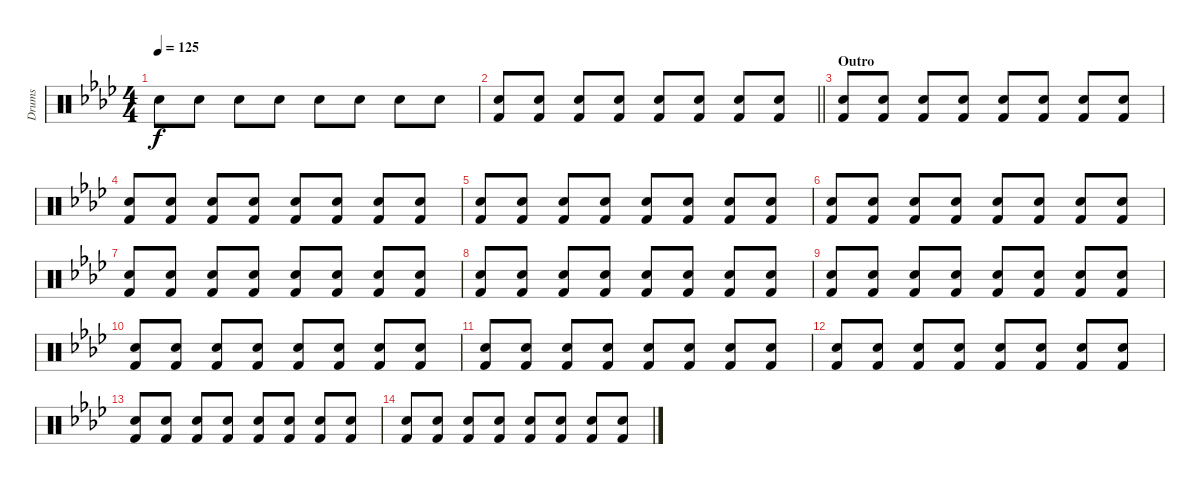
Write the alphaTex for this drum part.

\track ("Drums" "Drums") {instrument percussion}
\staff {score}
\articulation defaults
\ts (4 4)
\tempo 125
\clef neutral
\ks ab "Electric Snare (hit)".8{dy f} "Electric Snare (hit)".8 "Electric Snare (hit)".8 "Electric Snare (hit)".8 "Electric Snare (hit)".8 "Electric Snare (hit)".8 "Electric Snare (hit)".8 "Electric Snare (hit)".8
|
\barLineRight lightlight
("Electric Snare (hit)" "Kick (hit) 2").8 ("Electric Snare (hit)" "Kick (hit) 2").8 ("Electric Snare (hit)" "Kick (hit) 2").8 ("Electric Snare (hit)" "Kick (hit) 2").8 ("Electric Snare (hit)" "Kick (hit) 2").8 ("Electric Snare (hit)" "Kick (hit) 2").8 ("Electric Snare (hit)" "Kick (hit) 2").8 ("Electric Snare (hit)" "Kick (hit) 2").8 |
\section ("" "Outro")
("Electric Snare (hit)" "Kick (hit) 2").8{volume 8} ("Electric Snare (hit)" "Kick (hit) 2").8 ("Electric Snare (hit)" "Kick (hit) 2").8 ("Electric Snare (hit)" "Kick (hit) 2").8 ("Electric Snare (hit)" "Kick (hit) 2").8 ("Electric Snare (hit)" "Kick (hit) 2").8 ("Electric Snare (hit)" "Kick (hit) 2").8 ("Electric Snare (hit)" "Kick (hit) 2").8 |
("Electric Snare (hit)" "Kick (hit) 2").8 ("Electric Snare (hit)" "Kick (hit) 2").8 ("Electric Snare (hit)" "Kick (hit) 2").8 ("Electric Snare (hit)" "Kick (hit) 2").8 ("Electric Snare (hit)" "Kick (hit) 2").8 ("Electric Snare (hit)" "Kick (hit) 2").8 ("Electric Snare (hit)" "Kick (hit) 2").8 ("Electric Snare (hit)" "Kick (hit) 2").8 |
("Electric Snare (hit)" "Kick (hit) 2").8 ("Electric Snare (hit)" "Kick (hit) 2").8 ("Electric Snare (hit)" "Kick (hit) 2").8 ("Electric Snare (hit)" "Kick (hit) 2").8 ("Electric Snare (hit)" "Kick (hit) 2").8 ("Electric Snare (hit)" "Kick (hit) 2").8 ("Electric Snare (hit)" "Kick (hit) 2").8 ("Electric Snare (hit)" "Kick (hit) 2").8 |
("Electric Snare (hit)" "Kick (hit) 2").8 ("Electric Snare (hit)" "Kick (hit) 2").8 ("Electric Snare (hit)" "Kick (hit) 2").8 ("Electric Snare (hit)" "Kick (hit) 2").8 ("Electric Snare (hit)" "Kick (hit) 2").8 ("Electric Snare (hit)" "Kick (hit) 2").8 ("Electric Snare (hit)" "Kick (hit) 2").8 ("Electric Snare (hit)" "Kick (hit) 2").8 |
("Electric Snare (hit)" "Kick (hit) 2").8 ("Electric Snare (hit)" "Kick (hit) 2").8 ("Electric Snare (hit)" "Kick (hit) 2").8 ("Electric Snare (hit)" "Kick (hit) 2").8{volume 4} ("Electric Snare (hit)" "Kick (hit) 2").8 ("Electric Snare (hit)" "Kick (hit) 2").8 ("Electric Snare (hit)" "Kick (hit) 2").8 ("Electric Snare (hit)" "Kick (hit) 2").8 |
("Electric Snare (hit)" "Kick (hit) 2").8 ("Electric Snare (hit)" "Kick (hit) 2").8 ("Electric Snare (hit)" "Kick (hit) 2").8 ("Electric Snare (hit)" "Kick (hit) 2").8 ("Electric Snare (hit)" "Kick (hit) 2").8 ("Electric Snare (hit)" "Kick (hit) 2").8 ("Electric Snare (hit)" "Kick (hit) 2").8 ("Electric Snare (hit)" "Kick (hit) 2").8 |
("Electric Snare (hit)" "Kick (hit) 2").8 ("Electric Snare (hit)" "Kick (hit) 2").8 ("Electric Snare (hit)" "Kick (hit) 2").8 ("Electric Snare (hit)" "Kick (hit) 2").8 ("Electric Snare (hit)" "Kick (hit) 2").8 ("Electric Snare (hit)" "Kick (hit) 2").8 ("Electric Snare (hit)" "Kick (hit) 2").8 ("Electric Snare (hit)" "Kick (hit) 2").8 |
("Electric Snare (hit)" "Kick (hit) 2").8 ("Electric Snare (hit)" "Kick (hit) 2").8 ("Electric Snare (hit)" "Kick (hit) 2").8 ("Electric Snare (hit)" "Kick (hit) 2").8 ("Electric Snare (hit)" "Kick (hit) 2").8 ("Electric Snare (hit)" "Kick (hit) 2").8 ("Electric Snare (hit)" "Kick (hit) 2").8 ("Electric Snare (hit)" "Kick (hit) 2").8 |
("Electric Snare (hit)" "Kick (hit) 2").8 ("Electric Snare (hit)" "Kick (hit) 2").8 ("Electric Snare (hit)" "Kick (hit) 2").8 ("Electric Snare (hit)" "Kick (hit) 2").8 ("Electric Snare (hit)" "Kick (hit) 2").8 ("Electric Snare (hit)" "Kick (hit) 2").8{volume 0} ("Electric Snare (hit)" "Kick (hit) 2").8 ("Electric Snare (hit)" "Kick (hit) 2").8 |
("Electric Snare (hit)" "Kick (hit) 2").8 ("Electric Snare (hit)" "Kick (hit) 2").8 ("Electric Snare (hit)" "Kick (hit) 2").8 ("Electric Snare (hit)" "Kick (hit) 2").8 ("Electric Snare (hit)" "Kick (hit) 2").8 ("Electric Snare (hit)" "Kick (hit) 2").8 ("Electric Snare (hit)" "Kick (hit) 2").8 ("Electric Snare (hit)" "Kick (hit) 2").8 |
("Electric Snare (hit)" "Kick (hit) 2").8 ("Electric Snare (hit)" "Kick (hit) 2").8 ("Electric Snare (hit)" "Kick (hit) 2").8 ("Electric Snare (hit)" "Kick (hit) 2").8 ("Electric Snare (hit)" "Kick (hit) 2").8 ("Electric Snare (hit)" "Kick (hit) 2").8 ("Electric Snare (hit)" "Kick (hit) 2").8 ("Electric Snare (hit)" "Kick (hit) 2").8 |
("Electric Snare (hit)" "Kick (hit) 2").8 ("Electric Snare (hit)" "Kick (hit) 2").8 ("Electric Snare (hit)" "Kick (hit) 2").8 ("Electric Snare (hit)" "Kick (hit) 2").8 ("Electric Snare (hit)" "Kick (hit) 2").8 ("Electric Snare (hit)" "Kick (hit) 2").8 ("Electric Snare (hit)" "Kick (hit) 2").8 ("Electric Snare (hit)" "Kick (hit) 2").8
